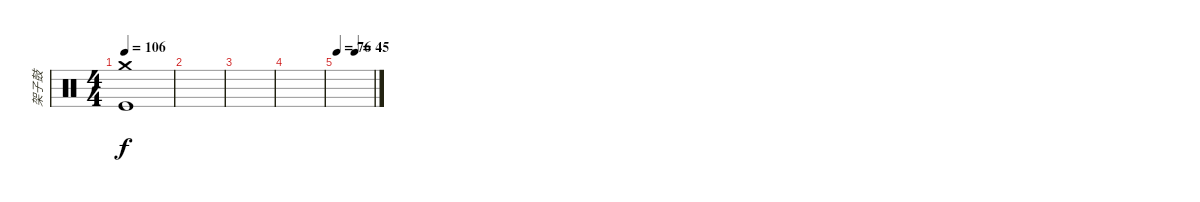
\track ("架子鼓" "架子鼓") {instrument percussion}
\staff {score}
\articulation defaults
\ts (4 4)
\tempo 106
\clef neutral
\ks c
("Crash medium (hit)" "Kick (hit)").1{dy f} |
|
|
|
\tempo 76
\tempo (45 0.5)
